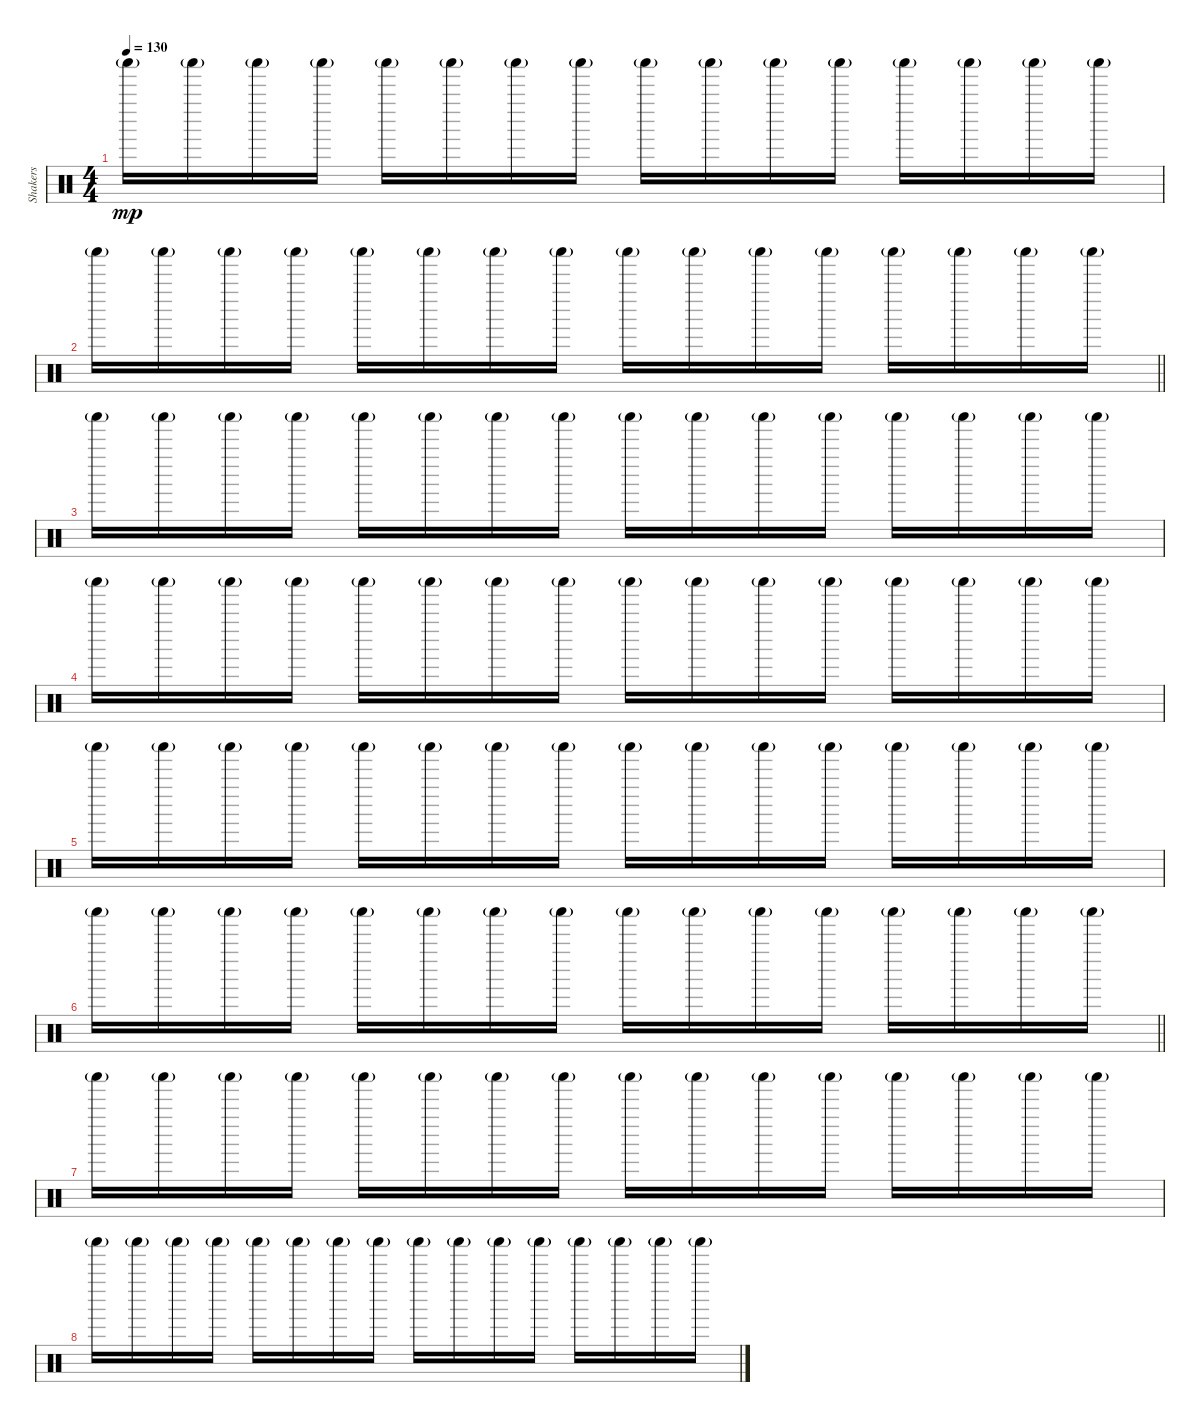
\track ("Shakers" "Shakers") {instrument percussion}
\staff {score}
\articulation defaults
\ts (4 4)
\tempo 130
\clef neutral
\ks c "Shaker (hit)"{g}.16{dy mp} "Shaker (hit)"{g}.16 "Shaker (hit)"{g}.16 "Shaker (hit)"{g}.16 "Shaker (hit)"{g}.16 "Shaker (hit)"{g}.16 "Shaker (hit)"{g}.16 "Shaker (hit)"{g}.16 "Shaker (hit)"{g}.16 "Shaker (hit)"{g}.16 "Shaker (hit)"{g}.16 "Shaker (hit)"{g}.16 "Shaker (hit)"{g}.16 "Shaker (hit)"{g}.16 "Shaker (hit)"{g}.16 "Shaker (hit)"{g}.16
|
\barLineRight lightlight "Shaker (hit)"{g}.16 "Shaker (hit)"{g}.16 "Shaker (hit)"{g}.16 "Shaker (hit)"{g}.16 "Shaker (hit)"{g}.16 "Shaker (hit)"{g}.16 "Shaker (hit)"{g}.16 "Shaker (hit)"{g}.16 "Shaker (hit)"{g}.16 "Shaker (hit)"{g}.16 "Shaker (hit)"{g}.16 "Shaker (hit)"{g}.16 "Shaker (hit)"{g}.16 "Shaker (hit)"{g}.16 "Shaker (hit)"{g}.16 "Shaker (hit)"{g}.16
|
"Shaker (hit)"{g}.16 "Shaker (hit)"{g}.16 "Shaker (hit)"{g}.16 "Shaker (hit)"{g}.16 "Shaker (hit)"{g}.16 "Shaker (hit)"{g}.16 "Shaker (hit)"{g}.16 "Shaker (hit)"{g}.16 "Shaker (hit)"{g}.16 "Shaker (hit)"{g}.16 "Shaker (hit)"{g}.16 "Shaker (hit)"{g}.16 "Shaker (hit)"{g}.16 "Shaker (hit)"{g}.16 "Shaker (hit)"{g}.16 "Shaker (hit)"{g}.16 |
"Shaker (hit)"{g}.16 "Shaker (hit)"{g}.16 "Shaker (hit)"{g}.16 "Shaker (hit)"{g}.16 "Shaker (hit)"{g}.16 "Shaker (hit)"{g}.16 "Shaker (hit)"{g}.16 "Shaker (hit)"{g}.16 "Shaker (hit)"{g}.16 "Shaker (hit)"{g}.16 "Shaker (hit)"{g}.16 "Shaker (hit)"{g}.16 "Shaker (hit)"{g}.16 "Shaker (hit)"{g}.16 "Shaker (hit)"{g}.16 "Shaker (hit)"{g}.16 |
"Shaker (hit)"{g}.16 "Shaker (hit)"{g}.16 "Shaker (hit)"{g}.16 "Shaker (hit)"{g}.16 "Shaker (hit)"{g}.16 "Shaker (hit)"{g}.16 "Shaker (hit)"{g}.16 "Shaker (hit)"{g}.16 "Shaker (hit)"{g}.16 "Shaker (hit)"{g}.16 "Shaker (hit)"{g}.16 "Shaker (hit)"{g}.16 "Shaker (hit)"{g}.16 "Shaker (hit)"{g}.16 "Shaker (hit)"{g}.16 "Shaker (hit)"{g}.16 |
\barLineRight lightlight "Shaker (hit)"{g}.16 "Shaker (hit)"{g}.16 "Shaker (hit)"{g}.16 "Shaker (hit)"{g}.16 "Shaker (hit)"{g}.16 "Shaker (hit)"{g}.16 "Shaker (hit)"{g}.16 "Shaker (hit)"{g}.16 "Shaker (hit)"{g}.16 "Shaker (hit)"{g}.16 "Shaker (hit)"{g}.16 "Shaker (hit)"{g}.16 "Shaker (hit)"{g}.16 "Shaker (hit)"{g}.16 "Shaker (hit)"{g}.16 "Shaker (hit)"{g}.16
|
"Shaker (hit)"{g}.16 "Shaker (hit)"{g}.16 "Shaker (hit)"{g}.16 "Shaker (hit)"{g}.16 "Shaker (hit)"{g}.16 "Shaker (hit)"{g}.16 "Shaker (hit)"{g}.16 "Shaker (hit)"{g}.16 "Shaker (hit)"{g}.16 "Shaker (hit)"{g}.16 "Shaker (hit)"{g}.16 "Shaker (hit)"{g}.16 "Shaker (hit)"{g}.16 "Shaker (hit)"{g}.16 "Shaker (hit)"{g}.16 "Shaker (hit)"{g}.16 |
"Shaker (hit)"{g}.16 "Shaker (hit)"{g}.16 "Shaker (hit)"{g}.16 "Shaker (hit)"{g}.16 "Shaker (hit)"{g}.16 "Shaker (hit)"{g}.16 "Shaker (hit)"{g}.16 "Shaker (hit)"{g}.16 "Shaker (hit)"{g}.16 "Shaker (hit)"{g}.16 "Shaker (hit)"{g}.16 "Shaker (hit)"{g}.16 "Shaker (hit)"{g}.16 "Shaker (hit)"{g}.16 "Shaker (hit)"{g}.16 "Shaker (hit)"{g}.16
